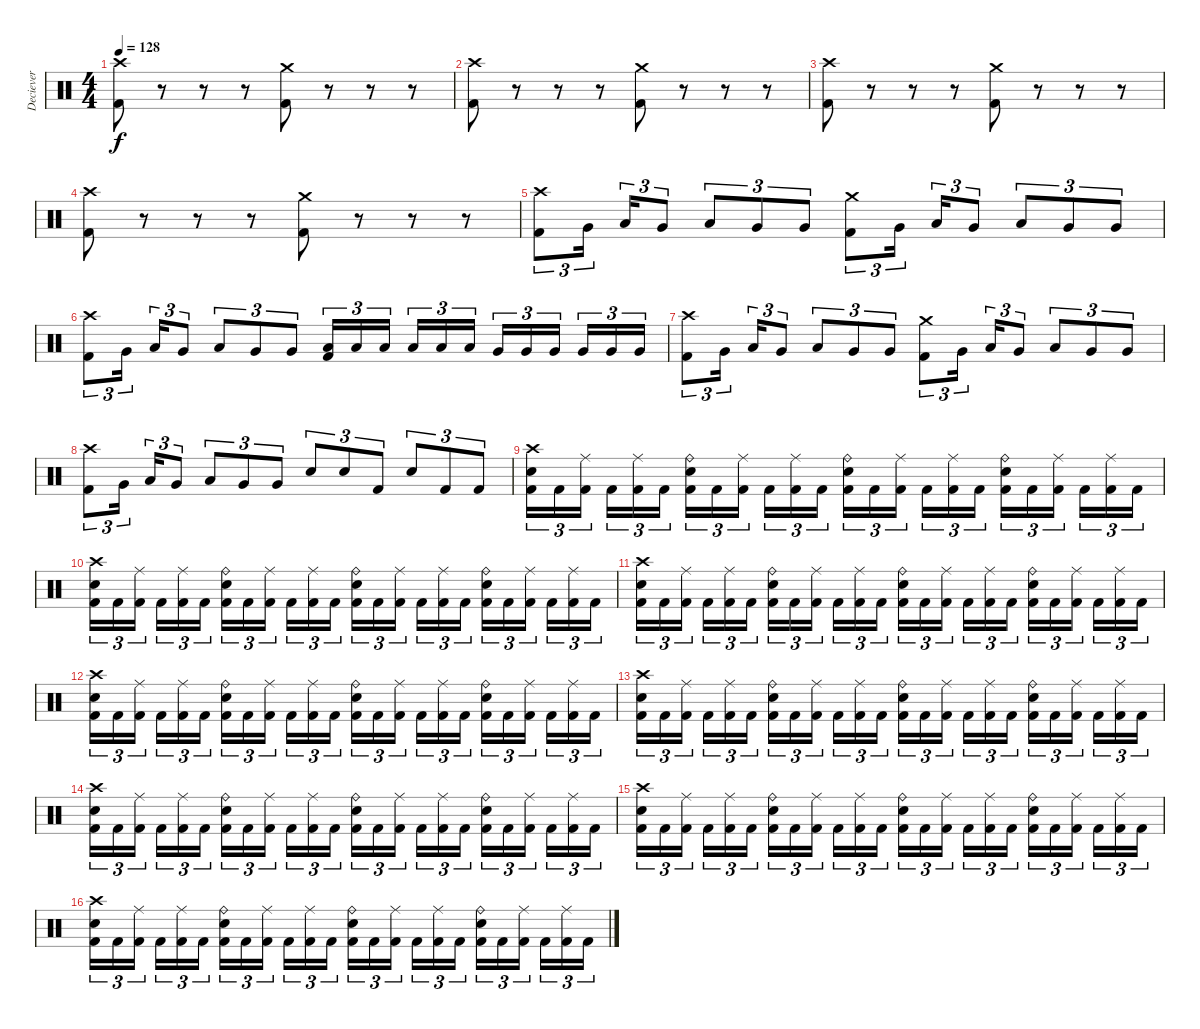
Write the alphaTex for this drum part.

\track ("Deciever" "Deciever") {instrument percussion}
\staff {score}
\articulation defaults
\ts (4 4)
\tempo 128
\clef neutral
\ks c
("Crash high (hit)" "Kick (hit) 2").8{dy f} r.8 r.8 r.8 ("Crash medium (hit)" "Kick (hit) 2").8 r.8 r.8 r.8 |
("Crash high (hit)" "Kick (hit) 2").8 r.8 r.8 r.8 ("Crash medium (hit)" "Kick (hit) 2").8 r.8 r.8 r.8 |
("Crash high (hit)" "Kick (hit) 2").8 r.8 r.8 r.8 ("Crash medium (hit)" "Kick (hit) 2").8 r.8 r.8 r.8 |
("Crash high (hit)" "Kick (hit) 2").8 r.8 r.8 r.8 ("Crash medium (hit)" "Kick (hit) 2").8 r.8 r.8 r.8 |
("Crash high (hit)" "Kick (hit) 2").8{tu (3 2)} "Very Low Tom (hit)".16{tu (3 2) beam splitsecondary} "Low Tom (hit)".16{tu (3 2)} "Very Low Tom (hit)".8{tu (3 2)} "Low Tom (hit)".8{tu (3 2)} "Very Low Tom (hit)".8{tu (3 2)} "Very Low Tom (hit)".8{tu (3 2)} ("Crash medium (hit)" "Kick (hit) 2").8{tu (3 2)} "Very Low Tom (hit)".16{tu (3 2) beam splitsecondary} "Low Tom (hit)".16{tu (3 2)} "Very Low Tom (hit)".8{tu (3 2)} "Low Tom (hit)".8{tu (3 2)} "Very Low Tom (hit)".8{tu (3 2)} "Very Low Tom (hit)".8{tu (3 2)} |
("Crash high (hit)" "Kick (hit) 2").8{tu (3 2)} "Very Low Tom (hit)".16{tu (3 2) beam splitsecondary} "Low Tom (hit)".16{tu (3 2)} "Very Low Tom (hit)".8{tu (3 2)} "Low Tom (hit)".8{tu (3 2)} "Very Low Tom (hit)".8{tu (3 2)} "Very Low Tom (hit)".8{tu (3 2)} ("Low Tom (hit)" "Kick (hit) 2").16{tu (3 2)} "Low Tom (hit)".16{tu (3 2)} "Low Tom (hit)".16{tu (3 2) beam splitsecondary} "Low Tom (hit)".16{tu (3 2)} "Low Tom (hit)".16{tu (3 2)} "Low Tom (hit)".16{tu (3 2)} "Very Low Tom (hit)".16{tu (3 2)} "Very Low Tom (hit)".16{tu (3 2)} "Very Low Tom (hit)".16{tu (3 2) beam splitsecondary} "Very Low Tom (hit)".16{tu (3 2)} "Very Low Tom (hit)".16{tu (3 2)} "Very Low Tom (hit)".16{tu (3 2)} |
("Crash high (hit)" "Kick (hit) 2").8{tu (3 2)} "Very Low Tom (hit)".16{tu (3 2) beam splitsecondary} "Low Tom (hit)".16{tu (3 2)} "Very Low Tom (hit)".8{tu (3 2)} "Low Tom (hit)".8{tu (3 2)} "Very Low Tom (hit)".8{tu (3 2)} "Very Low Tom (hit)".8{tu (3 2)} ("Crash medium (hit)" "Kick (hit) 2").8{tu (3 2)} "Very Low Tom (hit)".16{tu (3 2) beam splitsecondary} "Low Tom (hit)".16{tu (3 2)} "Very Low Tom (hit)".8{tu (3 2)} "Low Tom (hit)".8{tu (3 2)} "Very Low Tom (hit)".8{tu (3 2)} "Very Low Tom (hit)".8{tu (3 2)} |
("Crash high (hit)" "Kick (hit) 2").8{tu (3 2)} "Very Low Tom (hit)".16{tu (3 2) beam splitsecondary} "Low Tom (hit)".16{tu (3 2)} "Very Low Tom (hit)".8{tu (3 2)} "Low Tom (hit)".8{tu (3 2)} "Very Low Tom (hit)".8{tu (3 2)} "Very Low Tom (hit)".8{tu (3 2)} "Electric Snare (hit)".8{tu (3 2)} "Electric Snare (hit)".8{tu (3 2)} "Kick (hit) 2".8{tu (3 2)} "Electric Snare (hit)".8{tu (3 2)} "Kick (hit) 2".8{tu (3 2)} "Kick (hit) 2".8{tu (3 2)} |
("Crash high (hit)" "Electric Snare (hit)" "Kick (hit) 2").16{tu (3 2)} "Kick (hit) 2".16{tu (3 2)} ("Ride (middle)" "Kick (hit) 2").16{tu (3 2) beam splitsecondary} "Kick (hit) 2".16{tu (3 2)} ("Ride (middle)" "Kick (hit) 2").16{tu (3 2)} "Kick (hit) 2".16{tu (3 2)} ("Ride (bell)" "Electric Snare (hit)" "Kick (hit) 2").16{tu (3 2)} "Kick (hit) 2".16{tu (3 2)} ("Ride (middle)" "Kick (hit) 2").16{tu (3 2) beam splitsecondary} "Kick (hit) 2".16{tu (3 2)} ("Ride (middle)" "Kick (hit) 2").16{tu (3 2)} "Kick (hit) 2".16{tu (3 2)} ("Ride (bell)" "Electric Snare (hit)" "Kick (hit) 2").16{tu (3 2)} "Kick (hit) 2".16{tu (3 2)} ("Ride (middle)" "Kick (hit) 2").16{tu (3 2) beam splitsecondary} "Kick (hit) 2".16{tu (3 2)} ("Ride (middle)" "Kick (hit) 2").16{tu (3 2)} "Kick (hit) 2".16{tu (3 2)} ("Ride (bell)" "Electric Snare (hit)" "Kick (hit) 2").16{tu (3 2)} "Kick (hit) 2".16{tu (3 2)} ("Ride (middle)" "Kick (hit) 2").16{tu (3 2) beam splitsecondary} "Kick (hit) 2".16{tu (3 2)} ("Ride (middle)" "Kick (hit) 2").16{tu (3 2)} "Kick (hit) 2".16{tu (3 2)} |
("Crash high (hit)" "Electric Snare (hit)" "Kick (hit) 2").16{tu (3 2)} "Kick (hit) 2".16{tu (3 2)} ("Ride (middle)" "Kick (hit) 2").16{tu (3 2) beam splitsecondary} "Kick (hit) 2".16{tu (3 2)} ("Ride (middle)" "Kick (hit) 2").16{tu (3 2)} "Kick (hit) 2".16{tu (3 2)} ("Ride (bell)" "Electric Snare (hit)" "Kick (hit) 2").16{tu (3 2)} "Kick (hit) 2".16{tu (3 2)} ("Ride (middle)" "Kick (hit) 2").16{tu (3 2) beam splitsecondary} "Kick (hit) 2".16{tu (3 2)} ("Ride (middle)" "Kick (hit) 2").16{tu (3 2)} "Kick (hit) 2".16{tu (3 2)} ("Ride (bell)" "Electric Snare (hit)" "Kick (hit) 2").16{tu (3 2)} "Kick (hit) 2".16{tu (3 2)} ("Ride (middle)" "Kick (hit) 2").16{tu (3 2) beam splitsecondary} "Kick (hit) 2".16{tu (3 2)} ("Ride (middle)" "Kick (hit) 2").16{tu (3 2)} "Kick (hit) 2".16{tu (3 2)} ("Ride (bell)" "Electric Snare (hit)" "Kick (hit) 2").16{tu (3 2)} "Kick (hit) 2".16{tu (3 2)} ("Ride (middle)" "Kick (hit) 2").16{tu (3 2) beam splitsecondary} "Kick (hit) 2".16{tu (3 2)} ("Ride (middle)" "Kick (hit) 2").16{tu (3 2)} "Kick (hit) 2".16{tu (3 2)} |
("Crash high (hit)" "Electric Snare (hit)" "Kick (hit) 2").16{tu (3 2)} "Kick (hit) 2".16{tu (3 2)} ("Ride (middle)" "Kick (hit) 2").16{tu (3 2) beam splitsecondary} "Kick (hit) 2".16{tu (3 2)} ("Ride (middle)" "Kick (hit) 2").16{tu (3 2)} "Kick (hit) 2".16{tu (3 2)} ("Ride (bell)" "Electric Snare (hit)" "Kick (hit) 2").16{tu (3 2)} "Kick (hit) 2".16{tu (3 2)} ("Ride (middle)" "Kick (hit) 2").16{tu (3 2) beam splitsecondary} "Kick (hit) 2".16{tu (3 2)} ("Ride (middle)" "Kick (hit) 2").16{tu (3 2)} "Kick (hit) 2".16{tu (3 2)} ("Ride (bell)" "Electric Snare (hit)" "Kick (hit) 2").16{tu (3 2)} "Kick (hit) 2".16{tu (3 2)} ("Ride (middle)" "Kick (hit) 2").16{tu (3 2) beam splitsecondary} "Kick (hit) 2".16{tu (3 2)} ("Ride (middle)" "Kick (hit) 2").16{tu (3 2)} "Kick (hit) 2".16{tu (3 2)} ("Ride (bell)" "Electric Snare (hit)" "Kick (hit) 2").16{tu (3 2)} "Kick (hit) 2".16{tu (3 2)} ("Ride (middle)" "Kick (hit) 2").16{tu (3 2) beam splitsecondary} "Kick (hit) 2".16{tu (3 2)} ("Ride (middle)" "Kick (hit) 2").16{tu (3 2)} "Kick (hit) 2".16{tu (3 2)} |
("Crash high (hit)" "Electric Snare (hit)" "Kick (hit) 2").16{tu (3 2)} "Kick (hit) 2".16{tu (3 2)} ("Ride (middle)" "Kick (hit) 2").16{tu (3 2) beam splitsecondary} "Kick (hit) 2".16{tu (3 2)} ("Ride (middle)" "Kick (hit) 2").16{tu (3 2)} "Kick (hit) 2".16{tu (3 2)} ("Ride (bell)" "Electric Snare (hit)" "Kick (hit) 2").16{tu (3 2)} "Kick (hit) 2".16{tu (3 2)} ("Ride (middle)" "Kick (hit) 2").16{tu (3 2) beam splitsecondary} "Kick (hit) 2".16{tu (3 2)} ("Ride (middle)" "Kick (hit) 2").16{tu (3 2)} "Kick (hit) 2".16{tu (3 2)} ("Ride (bell)" "Electric Snare (hit)" "Kick (hit) 2").16{tu (3 2)} "Kick (hit) 2".16{tu (3 2)} ("Ride (middle)" "Kick (hit) 2").16{tu (3 2) beam splitsecondary} "Kick (hit) 2".16{tu (3 2)} ("Ride (middle)" "Kick (hit) 2").16{tu (3 2)} "Kick (hit) 2".16{tu (3 2)} ("Ride (bell)" "Electric Snare (hit)" "Kick (hit) 2").16{tu (3 2)} "Kick (hit) 2".16{tu (3 2)} ("Ride (middle)" "Kick (hit) 2").16{tu (3 2) beam splitsecondary} "Kick (hit) 2".16{tu (3 2)} ("Ride (middle)" "Kick (hit) 2").16{tu (3 2)} "Kick (hit) 2".16{tu (3 2)} |
("Crash high (hit)" "Electric Snare (hit)" "Kick (hit) 2").16{tu (3 2)} "Kick (hit) 2".16{tu (3 2)} ("Ride (middle)" "Kick (hit) 2").16{tu (3 2) beam splitsecondary} "Kick (hit) 2".16{tu (3 2)} ("Ride (middle)" "Kick (hit) 2").16{tu (3 2)} "Kick (hit) 2".16{tu (3 2)} ("Ride (bell)" "Electric Snare (hit)" "Kick (hit) 2").16{tu (3 2)} "Kick (hit) 2".16{tu (3 2)} ("Ride (middle)" "Kick (hit) 2").16{tu (3 2) beam splitsecondary} "Kick (hit) 2".16{tu (3 2)} ("Ride (middle)" "Kick (hit) 2").16{tu (3 2)} "Kick (hit) 2".16{tu (3 2)} ("Ride (bell)" "Electric Snare (hit)" "Kick (hit) 2").16{tu (3 2)} "Kick (hit) 2".16{tu (3 2)} ("Ride (middle)" "Kick (hit) 2").16{tu (3 2) beam splitsecondary} "Kick (hit) 2".16{tu (3 2)} ("Ride (middle)" "Kick (hit) 2").16{tu (3 2)} "Kick (hit) 2".16{tu (3 2)} ("Ride (bell)" "Electric Snare (hit)" "Kick (hit) 2").16{tu (3 2)} "Kick (hit) 2".16{tu (3 2)} ("Ride (middle)" "Kick (hit) 2").16{tu (3 2) beam splitsecondary} "Kick (hit) 2".16{tu (3 2)} ("Ride (middle)" "Kick (hit) 2").16{tu (3 2)} "Kick (hit) 2".16{tu (3 2)} |
("Crash high (hit)" "Electric Snare (hit)" "Kick (hit) 2").16{tu (3 2)} "Kick (hit) 2".16{tu (3 2)} ("Ride (middle)" "Kick (hit) 2").16{tu (3 2) beam splitsecondary} "Kick (hit) 2".16{tu (3 2)} ("Ride (middle)" "Kick (hit) 2").16{tu (3 2)} "Kick (hit) 2".16{tu (3 2)} ("Ride (bell)" "Electric Snare (hit)" "Kick (hit) 2").16{tu (3 2)} "Kick (hit) 2".16{tu (3 2)} ("Ride (middle)" "Kick (hit) 2").16{tu (3 2) beam splitsecondary} "Kick (hit) 2".16{tu (3 2)} ("Ride (middle)" "Kick (hit) 2").16{tu (3 2)} "Kick (hit) 2".16{tu (3 2)} ("Ride (bell)" "Electric Snare (hit)" "Kick (hit) 2").16{tu (3 2)} "Kick (hit) 2".16{tu (3 2)} ("Ride (middle)" "Kick (hit) 2").16{tu (3 2) beam splitsecondary} "Kick (hit) 2".16{tu (3 2)} ("Ride (middle)" "Kick (hit) 2").16{tu (3 2)} "Kick (hit) 2".16{tu (3 2)} ("Ride (bell)" "Electric Snare (hit)" "Kick (hit) 2").16{tu (3 2)} "Kick (hit) 2".16{tu (3 2)} ("Ride (middle)" "Kick (hit) 2").16{tu (3 2) beam splitsecondary} "Kick (hit) 2".16{tu (3 2)} ("Ride (middle)" "Kick (hit) 2").16{tu (3 2)} "Kick (hit) 2".16{tu (3 2)} |
("Crash high (hit)" "Electric Snare (hit)" "Kick (hit) 2").16{tu (3 2)} "Kick (hit) 2".16{tu (3 2)} ("Ride (middle)" "Kick (hit) 2").16{tu (3 2) beam splitsecondary} "Kick (hit) 2".16{tu (3 2)} ("Ride (middle)" "Kick (hit) 2").16{tu (3 2)} "Kick (hit) 2".16{tu (3 2)} ("Ride (bell)" "Electric Snare (hit)" "Kick (hit) 2").16{tu (3 2)} "Kick (hit) 2".16{tu (3 2)} ("Ride (middle)" "Kick (hit) 2").16{tu (3 2) beam splitsecondary} "Kick (hit) 2".16{tu (3 2)} ("Ride (middle)" "Kick (hit) 2").16{tu (3 2)} "Kick (hit) 2".16{tu (3 2)} ("Ride (bell)" "Electric Snare (hit)" "Kick (hit) 2").16{tu (3 2)} "Kick (hit) 2".16{tu (3 2)} ("Ride (middle)" "Kick (hit) 2").16{tu (3 2) beam splitsecondary} "Kick (hit) 2".16{tu (3 2)} ("Ride (middle)" "Kick (hit) 2").16{tu (3 2)} "Kick (hit) 2".16{tu (3 2)} ("Ride (bell)" "Electric Snare (hit)" "Kick (hit) 2").16{tu (3 2)} "Kick (hit) 2".16{tu (3 2)} ("Ride (middle)" "Kick (hit) 2").16{tu (3 2) beam splitsecondary} "Kick (hit) 2".16{tu (3 2)} ("Ride (middle)" "Kick (hit) 2").16{tu (3 2)} "Kick (hit) 2".16{tu (3 2)} |
("Crash high (hit)" "Electric Snare (hit)" "Kick (hit) 2").16{tu (3 2)} "Kick (hit) 2".16{tu (3 2)} ("Ride (middle)" "Kick (hit) 2").16{tu (3 2) beam splitsecondary} "Kick (hit) 2".16{tu (3 2)} ("Ride (middle)" "Kick (hit) 2").16{tu (3 2)} "Kick (hit) 2".16{tu (3 2)} ("Ride (bell)" "Electric Snare (hit)" "Kick (hit) 2").16{tu (3 2)} "Kick (hit) 2".16{tu (3 2)} ("Ride (middle)" "Kick (hit) 2").16{tu (3 2) beam splitsecondary} "Kick (hit) 2".16{tu (3 2)} ("Ride (middle)" "Kick (hit) 2").16{tu (3 2)} "Kick (hit) 2".16{tu (3 2)} ("Ride (bell)" "Electric Snare (hit)" "Kick (hit) 2").16{tu (3 2)} "Kick (hit) 2".16{tu (3 2)} ("Ride (middle)" "Kick (hit) 2").16{tu (3 2) beam splitsecondary} "Kick (hit) 2".16{tu (3 2)} ("Ride (middle)" "Kick (hit) 2").16{tu (3 2)} "Kick (hit) 2".16{tu (3 2)} ("Ride (bell)" "Electric Snare (hit)" "Kick (hit) 2").16{tu (3 2)} "Kick (hit) 2".16{tu (3 2)} ("Ride (middle)" "Kick (hit) 2").16{tu (3 2) beam splitsecondary} "Kick (hit) 2".16{tu (3 2)} ("Ride (middle)" "Kick (hit) 2").16{tu (3 2)} "Kick (hit) 2".16{tu (3 2)}
